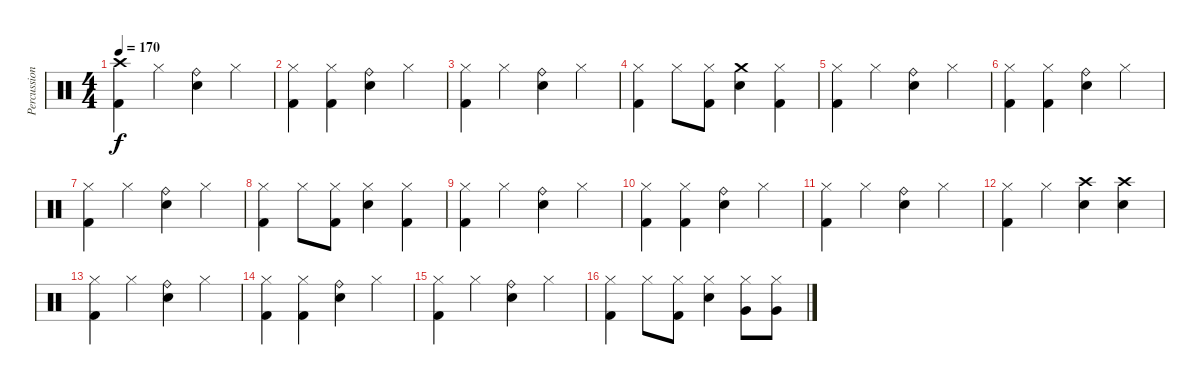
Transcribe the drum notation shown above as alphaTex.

\track ("Percussion" "Percussion") {instrument percussion}
\staff {score}
\articulation defaults
\ts (4 4)
\tempo 170
\clef neutral
\ks c
("Crash high (hit)" "Kick (hit) 2").4{dy f} "Hi-Hat (closed)".4 ("Ride (bell)" "Snare (hit) 2").4 "Hi-Hat (closed)".4 |
("Hi-Hat (closed)" "Kick (hit) 2").4 ("Hi-Hat (closed)" "Kick (hit) 2").4 ("Ride (bell)" "Snare (hit) 2").4 "Hi-Hat (closed)".4 |
("Hi-Hat (closed)" "Kick (hit) 2").4 "Hi-Hat (closed)".4 ("Ride (bell)" "Snare (hit) 2").4 "Hi-Hat (closed)".4 |
("Hi-Hat (closed)" "Kick (hit) 2").4 "Hi-Hat (closed)".8 ("Hi-Hat (closed)" "Kick (hit) 2").8 ("Crash medium (hit)" "Snare (hit) 2").4 ("Hi-Hat (closed)" "Kick (hit) 2").4 |
("Hi-Hat (closed)" "Kick (hit) 2").4 "Hi-Hat (closed)".4 ("Ride (bell)" "Snare (hit) 2").4 "Hi-Hat (closed)".4 |
("Hi-Hat (closed)" "Kick (hit) 2").4 ("Hi-Hat (closed)" "Kick (hit) 2").4 ("Ride (bell)" "Snare (hit) 2").4 "Hi-Hat (closed)".4 |
("Hi-Hat (closed)" "Kick (hit) 2").4 "Hi-Hat (closed)".4 ("Ride (bell)" "Snare (hit) 2").4 "Hi-Hat (closed)".4 |
("Hi-Hat (closed)" "Kick (hit) 2").4 "Hi-Hat (closed)".8 ("Hi-Hat (closed)" "Kick (hit) 2").8 ("Hi-Hat (closed)" "Snare (hit) 2").4 ("Hi-Hat (closed)" "Kick (hit) 2").4 |
("Hi-Hat (closed)" "Kick (hit) 2").4 "Hi-Hat (closed)".4 ("Ride (bell)" "Snare (hit) 2").4 "Hi-Hat (closed)".4 |
("Hi-Hat (closed)" "Kick (hit) 2").4 ("Hi-Hat (closed)" "Kick (hit) 2").4 ("Ride (bell)" "Snare (hit) 2").4 "Hi-Hat (closed)".4 |
("Hi-Hat (closed)" "Kick (hit) 2").4 "Hi-Hat (closed)".4 ("Ride (bell)" "Snare (hit) 2").4 "Hi-Hat (closed)".4 |
("Hi-Hat (closed)" "Kick (hit) 2").4 "Hi-Hat (closed)".4 ("Crash high (hit)" "Snare (hit) 2").4 ("Crash high (hit)" "Snare (hit) 2").4 |
("Hi-Hat (closed)" "Kick (hit) 2").4 "Hi-Hat (closed)".4 ("Ride (bell)" "Snare (hit) 2").4 "Hi-Hat (closed)".4 |
("Hi-Hat (closed)" "Kick (hit) 2").4 ("Hi-Hat (closed)" "Kick (hit) 2").4 ("Ride (bell)" "Snare (hit) 2").4 "Hi-Hat (closed)".4 |
("Hi-Hat (closed)" "Kick (hit) 2").4 "Hi-Hat (closed)".4 ("Ride (bell)" "Snare (hit) 2").4 "Hi-Hat (closed)".4 |
("Hi-Hat (closed)" "Kick (hit) 2").4 "Hi-Hat (closed)".8 ("Hi-Hat (closed)" "Kick (hit) 2").8 ("Hi-Hat (closed)" "Snare (hit) 2").4 ("Hi-Hat (closed)" "Very Low Tom (hit)").8 ("Hi-Hat (closed)" "Very Low Tom (hit)").8
